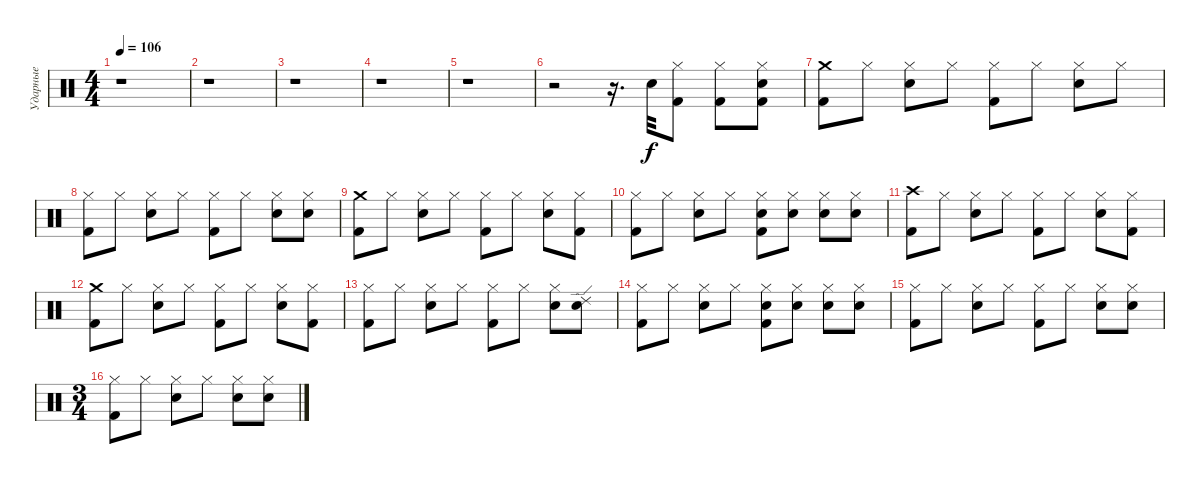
\track ("Ударные" "Ударные") {instrument percussion}
\staff {score}
\articulation defaults
\ts (4 4)
\tempo 106
\clef neutral
\ks c
r.1{dy f} |
r.1 |
r.1 |
r.1 |
r.1 |
r.2 r.16{d} "Snare (hit) 2".32 ("Hi-Hat (closed)" "Kick (hit) 2").8 ("Hi-Hat (closed)" "Kick (hit) 2").8 ("Hi-Hat (closed)" "Snare (hit) 2" "Kick (hit) 2").8 |
("Crash medium (hit)" "Kick (hit) 2").8 "Hi-Hat (closed)".8 ("Hi-Hat (closed)" "Snare (hit) 2").8 "Hi-Hat (closed)".8 ("Hi-Hat (closed)" "Kick (hit) 2").8 "Hi-Hat (closed)".8 ("Hi-Hat (closed)" "Snare (hit) 2").8 "Hi-Hat (closed)".8 |
("Hi-Hat (closed)" "Kick (hit) 2").8 "Hi-Hat (closed)".8 ("Hi-Hat (closed)" "Snare (hit) 2").8 "Hi-Hat (closed)".8 ("Hi-Hat (closed)" "Kick (hit) 2").8 "Hi-Hat (closed)".8 ("Hi-Hat (closed)" "Snare (hit) 2").8 ("Hi-Hat (closed)" "Snare (hit) 2").8 |
("Crash medium (hit)" "Kick (hit) 2").8 "Hi-Hat (closed)".8 ("Hi-Hat (closed)" "Snare (hit) 2").8 "Hi-Hat (closed)".8 ("Hi-Hat (closed)" "Kick (hit) 2").8 "Hi-Hat (closed)".8 ("Hi-Hat (closed)" "Snare (hit) 2").8 ("Hi-Hat (closed)" "Kick (hit) 2").8 |
("Hi-Hat (closed)" "Kick (hit) 2").8 "Hi-Hat (closed)".8 ("Hi-Hat (closed)" "Snare (hit) 2").8 "Hi-Hat (closed)".8 ("Hi-Hat (closed)" "Snare (hit) 2" "Kick (hit) 2").8 ("Hi-Hat (closed)" "Snare (hit) 2").8 ("Hi-Hat (closed)" "Snare (hit) 2").8 ("Hi-Hat (closed)" "Snare (hit) 2").8 |
("Crash high (hit)" "Kick (hit) 2").8 "Hi-Hat (closed)".8 ("Hi-Hat (closed)" "Snare (hit) 2").8 "Hi-Hat (closed)".8 ("Hi-Hat (closed)" "Kick (hit) 2").8 "Hi-Hat (closed)".8 ("Hi-Hat (closed)" "Snare (hit) 2").8 ("Hi-Hat (closed)" "Kick (hit) 2").8 |
("Crash medium (hit)" "Kick (hit) 2").8 "Hi-Hat (closed)".8 ("Hi-Hat (closed)" "Snare (hit) 2").8 "Hi-Hat (closed)".8 ("Hi-Hat (closed)" "Kick (hit) 2").8 "Hi-Hat (closed)".8 ("Hi-Hat (closed)" "Snare (hit) 2").8 ("Hi-Hat (closed)" "Kick (hit) 2").8 |
("Hi-Hat (closed)" "Kick (hit) 2").8 "Hi-Hat (closed)".8 ("Hi-Hat (closed)" "Snare (hit) 2").8 "Hi-Hat (closed)".8 ("Hi-Hat (closed)" "Kick (hit) 2").8 "Hi-Hat (closed)".8 ("Hi-Hat (closed)" "Snare (hit) 2").8 ("Ride (edge) 2" "Snare (hit) 2").8 |
("Hi-Hat (closed)" "Kick (hit) 2").8 "Hi-Hat (closed)".8 ("Hi-Hat (closed)" "Snare (hit) 2").8 "Hi-Hat (closed)".8 ("Hi-Hat (closed)" "Snare (hit) 2" "Kick (hit) 2").8 ("Hi-Hat (closed)" "Snare (hit) 2").8 ("Hi-Hat (closed)" "Snare (hit) 2").8 ("Hi-Hat (closed)" "Snare (hit) 2").8 |
("Hi-Hat (closed)" "Kick (hit) 2").8 "Hi-Hat (closed)".8 ("Hi-Hat (closed)" "Snare (hit) 2").8 "Hi-Hat (closed)".8 ("Hi-Hat (closed)" "Kick (hit) 2").8 "Hi-Hat (closed)".8 ("Hi-Hat (closed)" "Snare (hit) 2").8 ("Hi-Hat (closed)" "Snare (hit) 2").8 |
\ts (3 4)
("Hi-Hat (closed)" "Kick (hit) 2").8 "Hi-Hat (closed)".8 ("Hi-Hat (closed)" "Snare (hit) 2").8 "Hi-Hat (closed)".8 ("Hi-Hat (closed)" "Snare (hit) 2").8 ("Hi-Hat (closed)" "Snare (hit) 2").8
